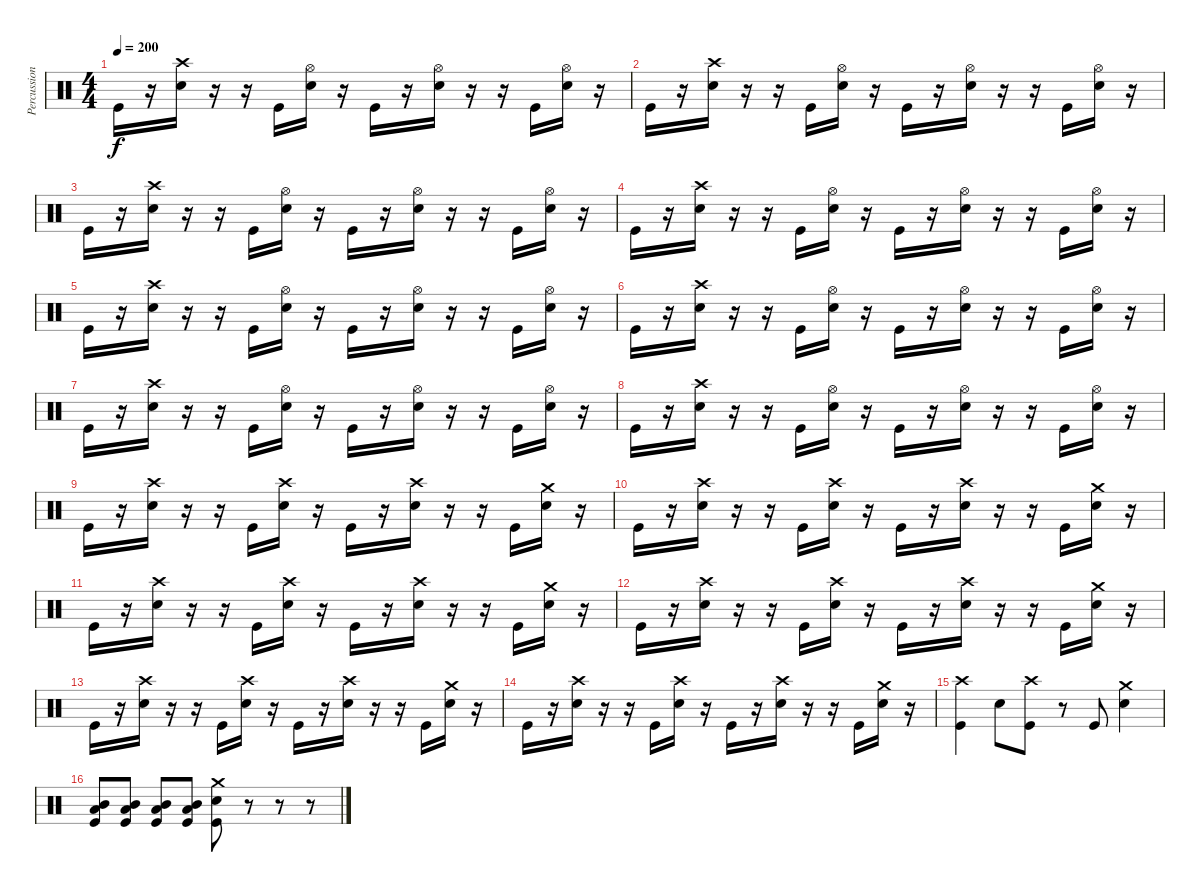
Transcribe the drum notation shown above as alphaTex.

\track ("Percussion" "Percussion") {instrument percussion}
\staff {score}
\articulation defaults
\ts (4 4)
\tempo 200
\clef neutral
\ks c "Kick (hit)".16{dy f}
r.16 ("Snare (hit) 2" "Crash high (hit)").16 r.16 r.16 "Kick (hit)".16 ("Snare (hit) 2" "Hi-Hat (open)").16 r.16 "Kick (hit)".16 r.16 ("Snare (hit) 2" "Hi-Hat (open)").16 r.16 r.16 "Kick (hit)".16 ("Snare (hit) 2" "Hi-Hat (open)").16 r.16 |
"Kick (hit)".16 r.16 ("Snare (hit) 2" "Crash high (hit)").16 r.16 r.16 "Kick (hit)".16 ("Snare (hit) 2" "Hi-Hat (open)").16 r.16 "Kick (hit)".16 r.16 ("Snare (hit) 2" "Hi-Hat (open)").16 r.16 r.16 "Kick (hit)".16 ("Snare (hit) 2" "Hi-Hat (open)").16 r.16 |
"Kick (hit)".16 r.16 ("Snare (hit) 2" "Crash high (hit)").16 r.16 r.16 "Kick (hit)".16 ("Snare (hit) 2" "Hi-Hat (open)").16 r.16 "Kick (hit)".16 r.16 ("Snare (hit) 2" "Hi-Hat (open)").16 r.16 r.16 "Kick (hit)".16 ("Snare (hit) 2" "Hi-Hat (open)").16 r.16 |
"Kick (hit)".16 r.16 ("Snare (hit) 2" "Crash high (hit)").16 r.16 r.16 "Kick (hit)".16 ("Snare (hit) 2" "Hi-Hat (open)").16 r.16 "Kick (hit)".16 r.16 ("Snare (hit) 2" "Hi-Hat (open)").16 r.16 r.16 "Kick (hit)".16 ("Snare (hit) 2" "Hi-Hat (open)").16 r.16 |
"Kick (hit)".16 r.16 ("Snare (hit) 2" "Crash high (hit)").16 r.16 r.16 "Kick (hit)".16 ("Snare (hit) 2" "Hi-Hat (open)").16 r.16 "Kick (hit)".16 r.16 ("Snare (hit) 2" "Hi-Hat (open)").16 r.16 r.16 "Kick (hit)".16 ("Snare (hit) 2" "Hi-Hat (open)").16 r.16 |
"Kick (hit)".16 r.16 ("Snare (hit) 2" "Crash high (hit)").16 r.16 r.16 "Kick (hit)".16 ("Snare (hit) 2" "Hi-Hat (open)").16 r.16 "Kick (hit)".16 r.16 ("Snare (hit) 2" "Hi-Hat (open)").16 r.16 r.16 "Kick (hit)".16 ("Snare (hit) 2" "Hi-Hat (open)").16 r.16 |
"Kick (hit)".16 r.16 ("Snare (hit) 2" "Crash high (hit)").16 r.16 r.16 "Kick (hit)".16 ("Snare (hit) 2" "Hi-Hat (open)").16 r.16 "Kick (hit)".16 r.16 ("Snare (hit) 2" "Hi-Hat (open)").16 r.16 r.16 "Kick (hit)".16 ("Snare (hit) 2" "Hi-Hat (open)").16 r.16 |
"Kick (hit)".16 r.16 ("Snare (hit) 2" "Crash high (hit)").16 r.16 r.16 "Kick (hit)".16 ("Snare (hit) 2" "Hi-Hat (open)").16 r.16 "Kick (hit)".16 r.16 ("Snare (hit) 2" "Hi-Hat (open)").16 r.16 r.16 "Kick (hit)".16 ("Snare (hit) 2" "Hi-Hat (open)").16 r.16 |
"Kick (hit)".16 r.16 ("Snare (hit) 2" "Crash high (hit)").16 r.16 r.16 "Kick (hit)".16 ("Snare (hit) 2" "Crash high (hit)").16 r.16 "Kick (hit)".16 r.16 ("Snare (hit) 2" "Crash high (hit)").16 r.16 r.16 "Kick (hit)".16 ("Snare (hit) 2" "Crash medium (hit)").16 r.16 |
"Kick (hit)".16 r.16 ("Snare (hit) 2" "Crash high (hit)").16 r.16 r.16 "Kick (hit)".16 ("Snare (hit) 2" "Crash high (hit)").16 r.16 "Kick (hit)".16 r.16 ("Snare (hit) 2" "Crash high (hit)").16 r.16 r.16 "Kick (hit)".16 ("Snare (hit) 2" "Crash medium (hit)").16 r.16 |
"Kick (hit)".16 r.16 ("Snare (hit) 2" "Crash high (hit)").16 r.16 r.16 "Kick (hit)".16 ("Snare (hit) 2" "Crash high (hit)").16 r.16 "Kick (hit)".16 r.16 ("Snare (hit) 2" "Crash high (hit)").16 r.16 r.16 "Kick (hit)".16 ("Snare (hit) 2" "Crash medium (hit)").16 r.16 |
"Kick (hit)".16 r.16 ("Snare (hit) 2" "Crash high (hit)").16 r.16 r.16 "Kick (hit)".16 ("Snare (hit) 2" "Crash high (hit)").16 r.16 "Kick (hit)".16 r.16 ("Snare (hit) 2" "Crash high (hit)").16 r.16 r.16 "Kick (hit)".16 ("Snare (hit) 2" "Crash medium (hit)").16 r.16 |
"Kick (hit)".16 r.16 ("Snare (hit) 2" "Crash high (hit)").16 r.16 r.16 "Kick (hit)".16 ("Snare (hit) 2" "Crash high (hit)").16 r.16 "Kick (hit)".16 r.16 ("Snare (hit) 2" "Crash high (hit)").16 r.16 r.16 "Kick (hit)".16 ("Snare (hit) 2" "Crash medium (hit)").16 r.16 |
"Kick (hit)".16 r.16 ("Snare (hit) 2" "Crash high (hit)").16 r.16 r.16 "Kick (hit)".16 ("Snare (hit) 2" "Crash high (hit)").16 r.16 "Kick (hit)".16 r.16 ("Snare (hit) 2" "Crash high (hit)").16 r.16 r.16 "Kick (hit)".16 ("Snare (hit) 2" "Crash medium (hit)").16 r.16 |
("Kick (hit)" "Crash high (hit)").4 "Snare (hit) 2".8 ("Kick (hit)" "Crash high (hit)").8 r.8 "Kick (hit)".8 ("Snare (hit) 2" "Crash medium (hit)").4 |
("Kick (hit)" "Low Tom (hit)" "Mid Tom (hit)").8 ("Kick (hit)" "Low Tom (hit)" "Mid Tom (hit)").8 ("Kick (hit)" "Low Tom (hit)" "Mid Tom (hit)").8 ("Kick (hit)" "Low Tom (hit)" "Mid Tom (hit)").8 ("Kick (hit)" "Snare (hit) 2" "Crash medium (hit)").8 r.8 r.8 r.8
